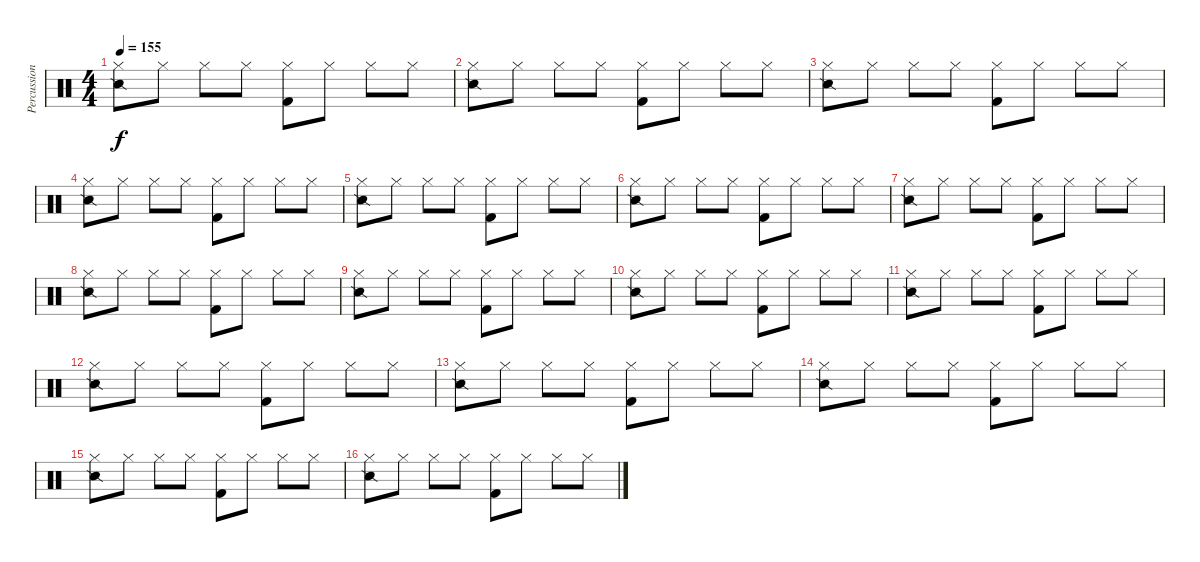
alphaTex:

\track ("Percussions" "Percussion") {instrument percussion}
\staff {score}
\articulation defaults
\ts (4 4)
\tempo 155
\clef neutral
\ks c
("Hi-Hat (closed)" "Snare (side stick) 2").8{dy f} "Hi-Hat (closed)".8 "Hi-Hat (closed)".8 "Hi-Hat (closed)".8 ("Hi-Hat (closed)" "Kick (hit) 2").8 "Hi-Hat (closed)".8 "Hi-Hat (closed)".8 "Hi-Hat (closed)".8 |
("Hi-Hat (closed)" "Snare (side stick) 2").8 "Hi-Hat (closed)".8 "Hi-Hat (closed)".8 "Hi-Hat (closed)".8 ("Hi-Hat (closed)" "Kick (hit) 2").8 "Hi-Hat (closed)".8 "Hi-Hat (closed)".8 "Hi-Hat (closed)".8 |
("Hi-Hat (closed)" "Snare (side stick) 2").8 "Hi-Hat (closed)".8 "Hi-Hat (closed)".8 "Hi-Hat (closed)".8 ("Hi-Hat (closed)" "Kick (hit) 2").8 "Hi-Hat (closed)".8 "Hi-Hat (closed)".8 "Hi-Hat (closed)".8 |
("Hi-Hat (closed)" "Snare (side stick) 2").8 "Hi-Hat (closed)".8 "Hi-Hat (closed)".8 "Hi-Hat (closed)".8 ("Hi-Hat (closed)" "Kick (hit) 2").8 "Hi-Hat (closed)".8 "Hi-Hat (closed)".8 "Hi-Hat (closed)".8 |
("Hi-Hat (closed)" "Snare (side stick) 2").8 "Hi-Hat (closed)".8 "Hi-Hat (closed)".8 "Hi-Hat (closed)".8 ("Hi-Hat (closed)" "Kick (hit) 2").8 "Hi-Hat (closed)".8 "Hi-Hat (closed)".8 "Hi-Hat (closed)".8 |
("Hi-Hat (closed)" "Snare (side stick) 2").8 "Hi-Hat (closed)".8 "Hi-Hat (closed)".8 "Hi-Hat (closed)".8 ("Hi-Hat (closed)" "Kick (hit) 2").8 "Hi-Hat (closed)".8 "Hi-Hat (closed)".8 "Hi-Hat (closed)".8 |
("Hi-Hat (closed)" "Snare (side stick) 2").8 "Hi-Hat (closed)".8 "Hi-Hat (closed)".8 "Hi-Hat (closed)".8 ("Hi-Hat (closed)" "Kick (hit) 2").8 "Hi-Hat (closed)".8 "Hi-Hat (closed)".8 "Hi-Hat (closed)".8 |
("Hi-Hat (closed)" "Snare (side stick) 2").8 "Hi-Hat (closed)".8 "Hi-Hat (closed)".8 "Hi-Hat (closed)".8 ("Hi-Hat (closed)" "Kick (hit) 2").8 "Hi-Hat (closed)".8 "Hi-Hat (closed)".8 "Hi-Hat (closed)".8 |
("Hi-Hat (closed)" "Snare (side stick) 2").8 "Hi-Hat (closed)".8 "Hi-Hat (closed)".8 "Hi-Hat (closed)".8 ("Hi-Hat (closed)" "Kick (hit) 2").8 "Hi-Hat (closed)".8 "Hi-Hat (closed)".8 "Hi-Hat (closed)".8 |
("Hi-Hat (closed)" "Snare (side stick) 2").8 "Hi-Hat (closed)".8 "Hi-Hat (closed)".8 "Hi-Hat (closed)".8 ("Hi-Hat (closed)" "Kick (hit) 2").8 "Hi-Hat (closed)".8 "Hi-Hat (closed)".8 "Hi-Hat (closed)".8 |
("Hi-Hat (closed)" "Snare (side stick) 2").8 "Hi-Hat (closed)".8 "Hi-Hat (closed)".8 "Hi-Hat (closed)".8 ("Hi-Hat (closed)" "Kick (hit) 2").8 "Hi-Hat (closed)".8 "Hi-Hat (closed)".8 "Hi-Hat (closed)".8 |
("Hi-Hat (closed)" "Snare (side stick) 2").8 "Hi-Hat (closed)".8 "Hi-Hat (closed)".8 "Hi-Hat (closed)".8 ("Hi-Hat (closed)" "Kick (hit) 2").8 "Hi-Hat (closed)".8 "Hi-Hat (closed)".8 "Hi-Hat (closed)".8 |
("Hi-Hat (closed)" "Snare (side stick) 2").8 "Hi-Hat (closed)".8 "Hi-Hat (closed)".8 "Hi-Hat (closed)".8 ("Hi-Hat (closed)" "Kick (hit) 2").8 "Hi-Hat (closed)".8 "Hi-Hat (closed)".8 "Hi-Hat (closed)".8 |
("Hi-Hat (closed)" "Snare (side stick) 2").8 "Hi-Hat (closed)".8 "Hi-Hat (closed)".8 "Hi-Hat (closed)".8 ("Hi-Hat (closed)" "Kick (hit) 2").8 "Hi-Hat (closed)".8 "Hi-Hat (closed)".8 "Hi-Hat (closed)".8 |
("Hi-Hat (closed)" "Snare (side stick) 2").8 "Hi-Hat (closed)".8 "Hi-Hat (closed)".8 "Hi-Hat (closed)".8 ("Hi-Hat (closed)" "Kick (hit) 2").8 "Hi-Hat (closed)".8 "Hi-Hat (closed)".8 "Hi-Hat (closed)".8 |
("Hi-Hat (closed)" "Snare (side stick) 2").8 "Hi-Hat (closed)".8 "Hi-Hat (closed)".8 "Hi-Hat (closed)".8 ("Hi-Hat (closed)" "Kick (hit) 2").8 "Hi-Hat (closed)".8 "Hi-Hat (closed)".8 "Hi-Hat (closed)".8
